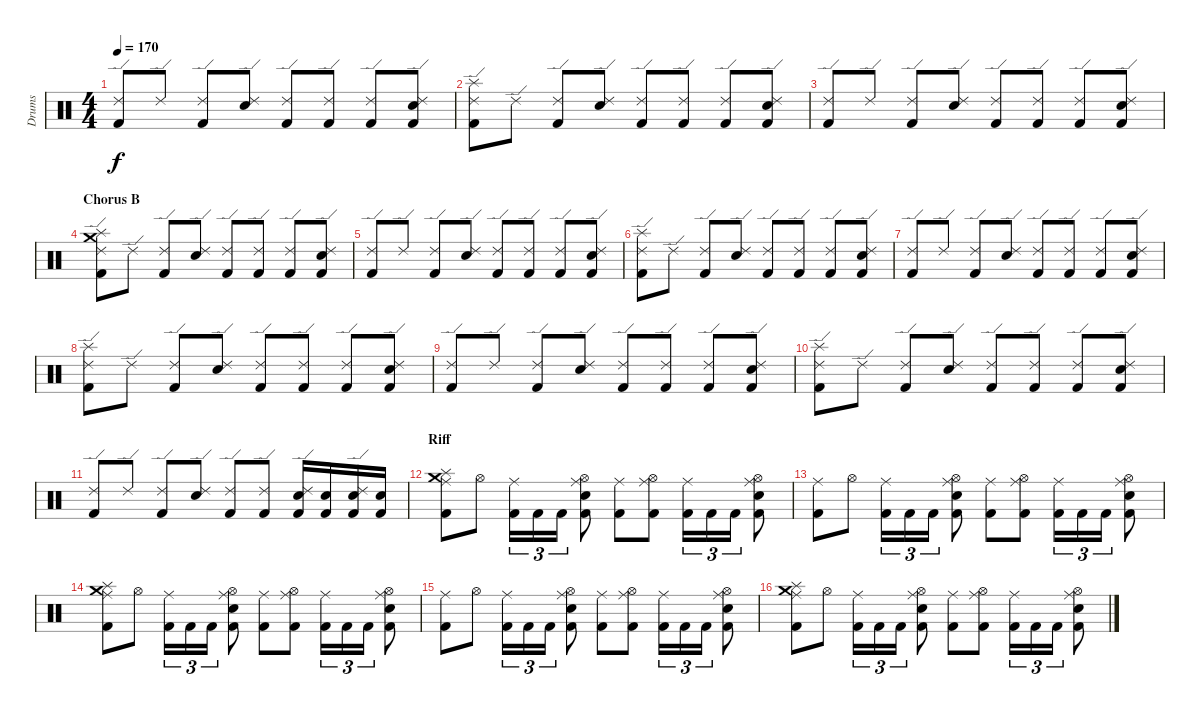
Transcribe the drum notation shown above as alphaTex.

\track ("Drums" "Drums") {instrument percussion}
\staff {score}
\articulation defaults
\ts (4 4)
\tempo 170
\clef neutral
\ks c
("Kick (hit) 2" "Ride (edge) 2").8{dy f} "Ride (edge) 2".8 ("Kick (hit) 2" "Ride (edge) 2").8 ("Snare (hit) 2" "Ride (edge) 2").8 ("Kick (hit) 2" "Ride (edge) 2").8 ("Kick (hit) 2" "Ride (edge) 2").8 ("Kick (hit) 2" "Ride (edge) 2").8 ("Kick (hit) 2" "Snare (hit) 2" "Ride (edge) 2").8 |
("Kick (hit) 2" "Splash (hit)" "Ride (edge) 2").8 "Ride (edge) 2".8 ("Kick (hit) 2" "Ride (edge) 2").8 ("Snare (hit) 2" "Ride (edge) 2").8 ("Kick (hit) 2" "Ride (edge) 2").8 ("Kick (hit) 2" "Ride (edge) 2").8 ("Kick (hit) 2" "Ride (edge) 2").8 ("Kick (hit) 2" "Snare (hit) 2" "Ride (edge) 2").8 |
("Kick (hit) 2" "Ride (edge) 2").8 "Ride (edge) 2".8 ("Kick (hit) 2" "Ride (edge) 2").8 ("Snare (hit) 2" "Ride (edge) 2").8 ("Kick (hit) 2" "Ride (edge) 2").8 ("Kick (hit) 2" "Ride (edge) 2").8 ("Kick (hit) 2" "Ride (edge) 2").8 ("Kick (hit) 2" "Snare (hit) 2" "Ride (edge) 2").8 |
\section ("" "Chorus B")
("Kick (hit) 2" "Crash medium (hit)" "Splash (hit)" "Ride (edge) 2").8 "Ride (edge) 2".8 ("Kick (hit) 2" "Ride (edge) 2").8 ("Snare (hit) 2" "Ride (edge) 2").8 ("Kick (hit) 2" "Ride (edge) 2").8 ("Kick (hit) 2" "Ride (edge) 2").8 ("Kick (hit) 2" "Ride (edge) 2").8 ("Kick (hit) 2" "Snare (hit) 2" "Ride (edge) 2").8 |
("Kick (hit) 2" "Ride (edge) 2").8 "Ride (edge) 2".8 ("Kick (hit) 2" "Ride (edge) 2").8 ("Snare (hit) 2" "Ride (edge) 2").8 ("Kick (hit) 2" "Ride (edge) 2").8 ("Kick (hit) 2" "Ride (edge) 2").8 ("Kick (hit) 2" "Ride (edge) 2").8 ("Kick (hit) 2" "Snare (hit) 2" "Ride (edge) 2").8 |
("Kick (hit) 2" "Splash (hit)" "Ride (edge) 2").8 "Ride (edge) 2".8 ("Kick (hit) 2" "Ride (edge) 2").8 ("Snare (hit) 2" "Ride (edge) 2").8 ("Kick (hit) 2" "Ride (edge) 2").8 ("Kick (hit) 2" "Ride (edge) 2").8 ("Kick (hit) 2" "Ride (edge) 2").8 ("Kick (hit) 2" "Snare (hit) 2" "Ride (edge) 2").8 |
("Kick (hit) 2" "Ride (edge) 2").8 "Ride (edge) 2".8 ("Kick (hit) 2" "Ride (edge) 2").8 ("Snare (hit) 2" "Ride (edge) 2").8 ("Kick (hit) 2" "Ride (edge) 2").8 ("Kick (hit) 2" "Ride (edge) 2").8 ("Kick (hit) 2" "Ride (edge) 2").8 ("Kick (hit) 2" "Snare (hit) 2" "Ride (edge) 2").8 |
("Kick (hit) 2" "Splash (hit)" "Ride (edge) 2").8 "Ride (edge) 2".8 ("Kick (hit) 2" "Ride (edge) 2").8 ("Snare (hit) 2" "Ride (edge) 2").8 ("Kick (hit) 2" "Ride (edge) 2").8 ("Kick (hit) 2" "Ride (edge) 2").8 ("Kick (hit) 2" "Ride (edge) 2").8 ("Kick (hit) 2" "Snare (hit) 2" "Ride (edge) 2").8 |
("Kick (hit) 2" "Ride (edge) 2").8 "Ride (edge) 2".8 ("Kick (hit) 2" "Ride (edge) 2").8 ("Snare (hit) 2" "Ride (edge) 2").8 ("Kick (hit) 2" "Ride (edge) 2").8 ("Kick (hit) 2" "Ride (edge) 2").8 ("Kick (hit) 2" "Ride (edge) 2").8 ("Kick (hit) 2" "Snare (hit) 2" "Ride (edge) 2").8 |
("Kick (hit) 2" "Splash (hit)" "Ride (edge) 2").8 "Ride (edge) 2".8 ("Kick (hit) 2" "Ride (edge) 2").8 ("Snare (hit) 2" "Ride (edge) 2").8 ("Kick (hit) 2" "Ride (edge) 2").8 ("Kick (hit) 2" "Ride (edge) 2").8 ("Kick (hit) 2" "Ride (edge) 2").8 ("Kick (hit) 2" "Snare (hit) 2" "Ride (edge) 2").8 |
("Kick (hit) 2" "Ride (edge) 2").8 "Ride (edge) 2".8 ("Kick (hit) 2" "Ride (edge) 2").8 ("Snare (hit) 2" "Ride (edge) 2").8 ("Kick (hit) 2" "Ride (edge) 2").8 ("Kick (hit) 2" "Ride (edge) 2").8 ("Kick (hit) 2" "Snare (hit) 2" "Ride (edge) 2").16 ("Kick (hit) 2" "Snare (hit) 2").16 ("Kick (hit) 2" "Snare (hit) 2" "Ride (edge) 2").16 ("Kick (hit) 2" "Snare (hit) 2").16 |
\section ("" "Riff")
("Kick (hit) 2" "Splash (hit)" "Crash medium (hit)" "Ride (middle)").8 "Hi-Hat (open)".8 ("Kick (hit) 2" "Ride (middle)").16{tu (3 2)} "Kick (hit) 2".16{tu (3 2)} "Kick (hit) 2".16{tu (3 2)} ("Kick (hit) 2" "Snare (hit) 2" "Hi-Hat (open)" "Ride (middle)").8 ("Kick (hit) 2" "Ride (middle)").8 ("Kick (hit) 2" "Hi-Hat (open)" "Ride (middle)").8 ("Kick (hit) 2" "Ride (middle)").16{tu (3 2)} "Kick (hit) 2".16{tu (3 2)} "Kick (hit) 2".16{tu (3 2)} ("Kick (hit) 2" "Snare (hit) 2" "Hi-Hat (open)" "Ride (middle)").8 |
("Kick (hit) 2" "Ride (middle)").8 "Hi-Hat (open)".8 ("Kick (hit) 2" "Ride (middle)").16{tu (3 2)} "Kick (hit) 2".16{tu (3 2)} "Kick (hit) 2".16{tu (3 2)} ("Kick (hit) 2" "Snare (hit) 2" "Hi-Hat (open)" "Ride (middle)").8 ("Kick (hit) 2" "Ride (middle)").8 ("Kick (hit) 2" "Hi-Hat (open)" "Ride (middle)").8 ("Kick (hit) 2" "Ride (middle)").16{tu (3 2)} "Kick (hit) 2".16{tu (3 2)} "Kick (hit) 2".16{tu (3 2)} ("Kick (hit) 2" "Snare (hit) 2" "Hi-Hat (open)" "Ride (middle)").8 |
("Kick (hit) 2" "Splash (hit)" "Crash medium (hit)" "Ride (middle)").8 "Hi-Hat (open)".8 ("Kick (hit) 2" "Ride (middle)").16{tu (3 2)} "Kick (hit) 2".16{tu (3 2)} "Kick (hit) 2".16{tu (3 2)} ("Kick (hit) 2" "Snare (hit) 2" "Hi-Hat (open)" "Ride (middle)").8 ("Kick (hit) 2" "Ride (middle)").8 ("Kick (hit) 2" "Hi-Hat (open)" "Ride (middle)").8 ("Kick (hit) 2" "Ride (middle)").16{tu (3 2)} "Kick (hit) 2".16{tu (3 2)} "Kick (hit) 2".16{tu (3 2)} ("Kick (hit) 2" "Snare (hit) 2" "Hi-Hat (open)" "Ride (middle)").8 |
("Kick (hit) 2" "Ride (middle)").8 "Hi-Hat (open)".8 ("Kick (hit) 2" "Ride (middle)").16{tu (3 2)} "Kick (hit) 2".16{tu (3 2)} "Kick (hit) 2".16{tu (3 2)} ("Kick (hit) 2" "Snare (hit) 2" "Hi-Hat (open)" "Ride (middle)").8 ("Kick (hit) 2" "Ride (middle)").8 ("Kick (hit) 2" "Hi-Hat (open)" "Ride (middle)").8 ("Kick (hit) 2" "Ride (middle)").16{tu (3 2)} "Kick (hit) 2".16{tu (3 2)} "Kick (hit) 2".16{tu (3 2)} ("Kick (hit) 2" "Snare (hit) 2" "Hi-Hat (open)" "Ride (middle)").8 |
("Kick (hit) 2" "Splash (hit)" "Crash medium (hit)" "Ride (middle)").8 "Hi-Hat (open)".8 ("Kick (hit) 2" "Ride (middle)").16{tu (3 2)} "Kick (hit) 2".16{tu (3 2)} "Kick (hit) 2".16{tu (3 2)} ("Kick (hit) 2" "Snare (hit) 2" "Hi-Hat (open)" "Ride (middle)").8 ("Kick (hit) 2" "Ride (middle)").8 ("Kick (hit) 2" "Hi-Hat (open)" "Ride (middle)").8 ("Kick (hit) 2" "Ride (middle)").16{tu (3 2)} "Kick (hit) 2".16{tu (3 2)} "Kick (hit) 2".16{tu (3 2)} ("Kick (hit) 2" "Snare (hit) 2" "Hi-Hat (open)" "Ride (middle)").8
